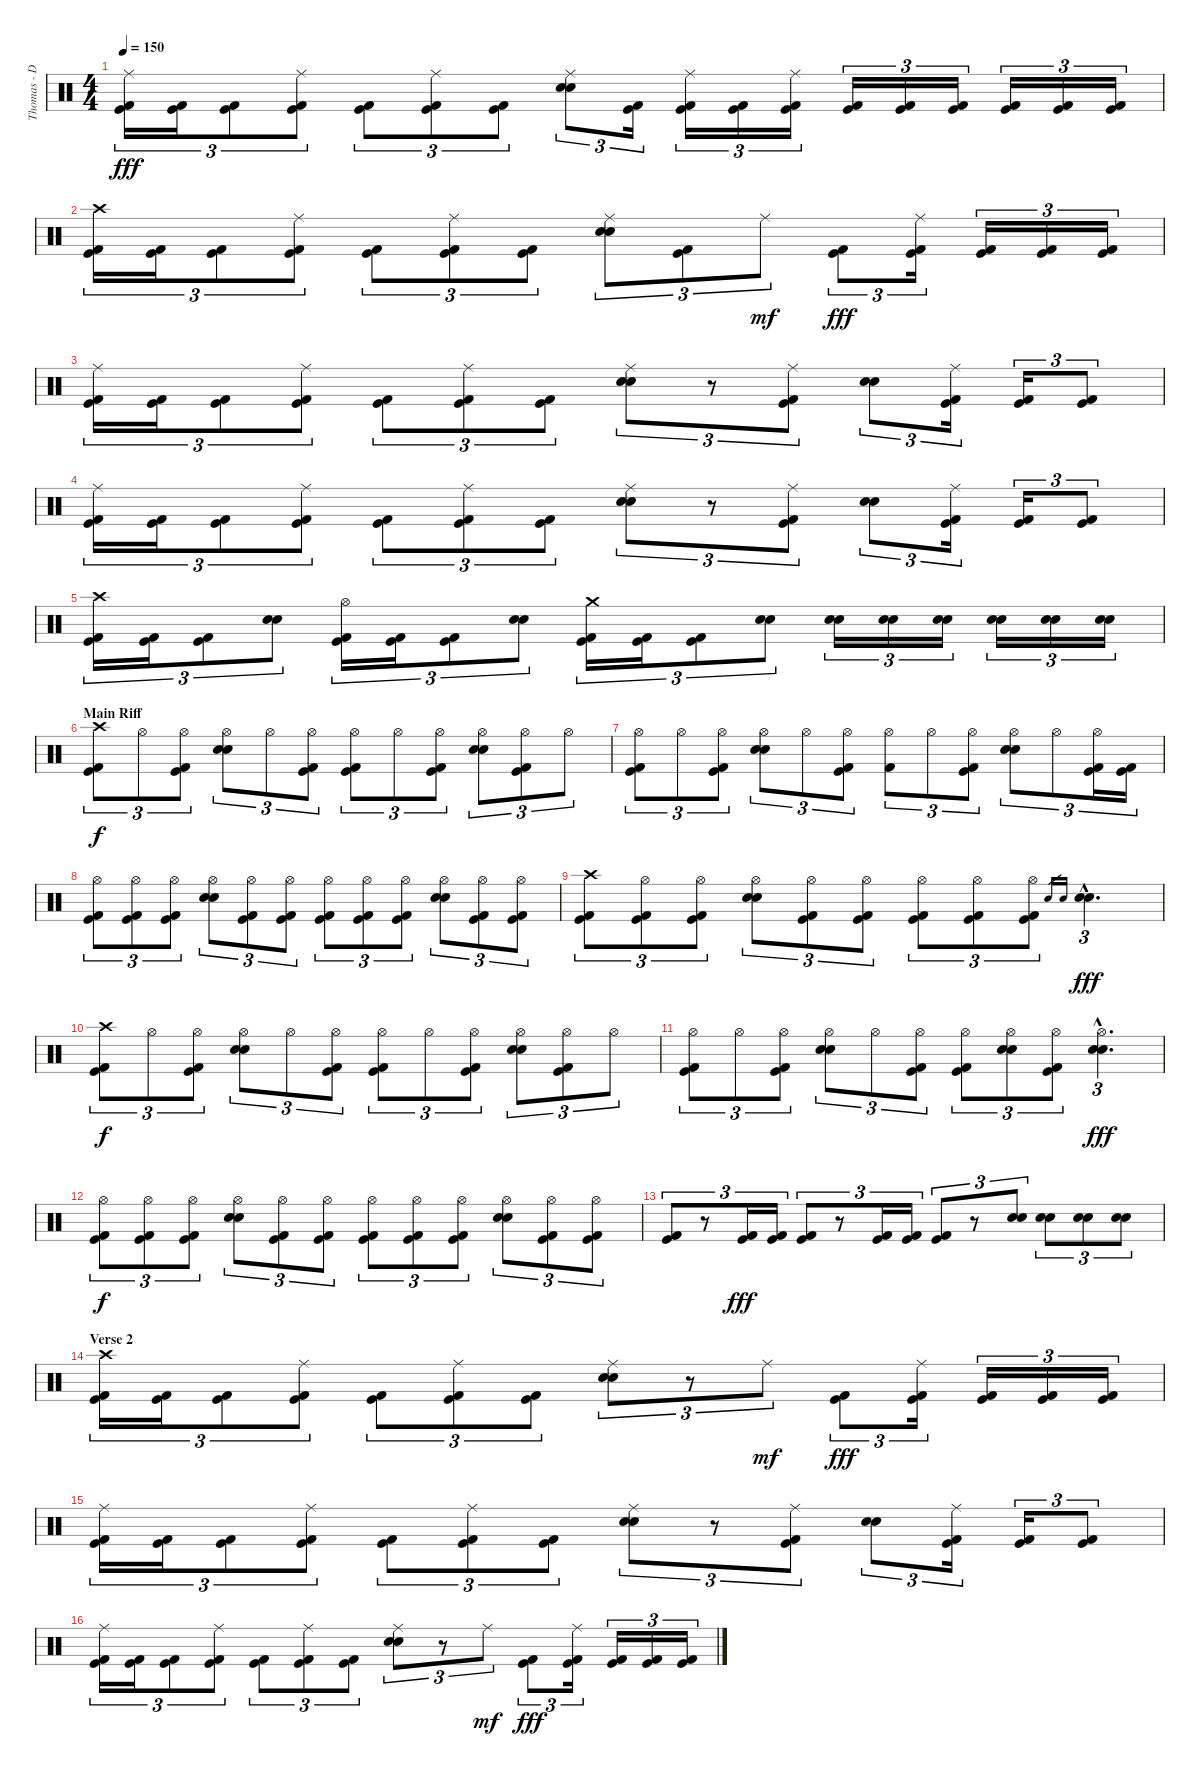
\track ("Thomas - Drums" "Thomas - D") {instrument percussion}
\staff {score}
\articulation defaults
\ts (4 4)
\tempo 150
\clef neutral
\ks c
("Ride (middle)" "Kick (hit)" "Kick (hit) 2").16{tu (3 2) dy fff} ("Kick (hit)" "Kick (hit) 2").16{tu (3 2)} ("Kick (hit)" "Kick (hit) 2").8{tu (3 2)} ("Ride (middle)" "Kick (hit)" "Kick (hit) 2").8{tu (3 2)} ("Kick (hit)" "Kick (hit) 2").8{tu (3 2)} ("Ride (middle)" "Kick (hit)" "Kick (hit) 2").8{tu (3 2)} ("Kick (hit)" "Kick (hit) 2").8{tu (3 2)} ("Ride (middle)" "Electric Snare (hit)" "Electric Snare (hit)").8{tu (3 2)} ("Kick (hit)" "Kick (hit) 2").16{tu (3 2)} ("Ride (middle)" "Kick (hit)" "Kick (hit) 2").16{tu (3 2)} ("Kick (hit)" "Kick (hit) 2").16{tu (3 2)} ("Ride (middle)" "Kick (hit)" "Kick (hit) 2").16{tu (3 2)} ("Kick (hit)" "Kick (hit) 2").16{tu (3 2)} ("Kick (hit)" "Kick (hit) 2").16{tu (3 2)} ("Kick (hit)" "Kick (hit) 2").16{tu (3 2)} ("Kick (hit)" "Kick (hit) 2").16{tu (3 2)} ("Kick (hit)" "Kick (hit) 2").16{tu (3 2)} ("Kick (hit)" "Kick (hit) 2").16{tu (3 2)} |
("Crash high (hit)" "Kick (hit)" "Kick (hit) 2").16{tu (3 2)} ("Kick (hit)" "Kick (hit) 2").16{tu (3 2)} ("Kick (hit)" "Kick (hit) 2").8{tu (3 2)} ("Ride (middle)" "Kick (hit)" "Kick (hit) 2").8{tu (3 2)} ("Kick (hit)" "Kick (hit) 2").8{tu (3 2)} ("Ride (middle)" "Kick (hit)" "Kick (hit) 2").8{tu (3 2)} ("Kick (hit)" "Kick (hit) 2").8{tu (3 2)} ("Ride (middle)" "Electric Snare (hit)" "Electric Snare (hit)").8{tu (3 2)} ("Kick (hit)" "Kick (hit) 2").8{tu (3 2)} "Ride (middle)".8{tu (3 2) dy mf} ("Kick (hit)" "Kick (hit) 2").8{tu (3 2) dy fff} ("Ride (middle)" "Kick (hit)" "Kick (hit) 2").16{tu (3 2)} ("Kick (hit)" "Kick (hit) 2").16{tu (3 2)} ("Kick (hit)" "Kick (hit) 2").16{tu (3 2)} ("Kick (hit)" "Kick (hit) 2").16{tu (3 2)} |
("Ride (middle)" "Kick (hit)" "Kick (hit) 2").16{tu (3 2)} ("Kick (hit)" "Kick (hit) 2").16{tu (3 2)} ("Kick (hit)" "Kick (hit) 2").8{tu (3 2)} ("Ride (middle)" "Kick (hit)" "Kick (hit) 2").8{tu (3 2)} ("Kick (hit)" "Kick (hit) 2").8{tu (3 2)} ("Ride (middle)" "Kick (hit)" "Kick (hit) 2").8{tu (3 2)} ("Kick (hit)" "Kick (hit) 2").8{tu (3 2)} ("Ride (middle)" "Electric Snare (hit)" "Electric Snare (hit)").8{tu (3 2)} r.8{tu (3 2)} ("Ride (middle)" "Kick (hit)" "Kick (hit) 2").8{tu (3 2)} ("Electric Snare (hit)" "Electric Snare (hit)").8{tu (3 2)} ("Ride (middle)" "Kick (hit)" "Kick (hit) 2").16{tu (3 2)} ("Kick (hit)" "Kick (hit) 2").16{tu (3 2)} ("Kick (hit)" "Kick (hit) 2").8{tu (3 2)} |
("Ride (middle)" "Kick (hit)" "Kick (hit) 2").16{tu (3 2)} ("Kick (hit)" "Kick (hit) 2").16{tu (3 2)} ("Kick (hit)" "Kick (hit) 2").8{tu (3 2)} ("Ride (middle)" "Kick (hit)" "Kick (hit) 2").8{tu (3 2)} ("Kick (hit)" "Kick (hit) 2").8{tu (3 2)} ("Ride (middle)" "Kick (hit)" "Kick (hit) 2").8{tu (3 2)} ("Kick (hit)" "Kick (hit) 2").8{tu (3 2)} ("Ride (middle)" "Electric Snare (hit)" "Electric Snare (hit)").8{tu (3 2)} r.8{tu (3 2)} ("Ride (middle)" "Kick (hit)" "Kick (hit) 2").8{tu (3 2)} ("Electric Snare (hit)" "Electric Snare (hit)").8{tu (3 2)} ("Ride (middle)" "Kick (hit)" "Kick (hit) 2").16{tu (3 2)} ("Kick (hit)" "Kick (hit) 2").16{tu (3 2)} ("Kick (hit)" "Kick (hit) 2").8{tu (3 2)} |
("Crash high (hit)" "Kick (hit)" "Kick (hit) 2").16{tu (3 2)} ("Kick (hit)" "Kick (hit) 2").16{tu (3 2)} ("Kick (hit)" "Kick (hit) 2").8{tu (3 2)} ("Electric Snare (hit)" "Electric Snare (hit)").8{tu (3 2)} ("Hi-Hat (open)" "Kick (hit)" "Kick (hit) 2").16{tu (3 2)} ("Kick (hit)" "Kick (hit) 2").16{tu (3 2)} ("Kick (hit)" "Kick (hit) 2").8{tu (3 2)} ("Electric Snare (hit)" "Electric Snare (hit)").8{tu (3 2)} ("Crash medium (hit)" "Kick (hit)" "Kick (hit) 2").16{tu (3 2)} ("Kick (hit)" "Kick (hit) 2").16{tu (3 2)} ("Kick (hit)" "Kick (hit) 2").8{tu (3 2)} ("Electric Snare (hit)" "Electric Snare (hit)").8{tu (3 2)} ("Electric Snare (hit)" "Electric Snare (hit)").16{tu (3 2)} ("Electric Snare (hit)" "Electric Snare (hit)").16{tu (3 2)} ("Electric Snare (hit)" "Electric Snare (hit)").16{tu (3 2)} ("Electric Snare (hit)" "Electric Snare (hit)").16{tu (3 2)} ("Electric Snare (hit)" "Electric Snare (hit)").16{tu (3 2)} ("Electric Snare (hit)" "Electric Snare (hit)").16{tu (3 2)} |
\section ("" "Main Riff")
("Crash high (hit)" "Kick (hit)" "Kick (hit) 2").8{tu (3 2) dy f} "Hi-Hat (open)".8{tu (3 2)} ("Hi-Hat (open)" "Kick (hit)" "Kick (hit) 2").8{tu (3 2)} ("Hi-Hat (open)" "Electric Snare (hit)" "Electric Snare (hit)").8{tu (3 2)} "Hi-Hat (open)".8{tu (3 2)} ("Hi-Hat (open)" "Kick (hit)" "Kick (hit) 2").8{tu (3 2)} ("Hi-Hat (open)" "Kick (hit)" "Kick (hit) 2").8{tu (3 2)} "Hi-Hat (open)".8{tu (3 2)} ("Hi-Hat (open)" "Kick (hit)" "Kick (hit) 2").8{tu (3 2)} ("Hi-Hat (open)" "Electric Snare (hit)" "Electric Snare (hit)").8{tu (3 2)} ("Hi-Hat (open)" "Kick (hit)" "Kick (hit) 2").8{tu (3 2)} "Hi-Hat (open)".8{tu (3 2)} |
("Hi-Hat (open)" "Kick (hit)" "Kick (hit) 2").8{tu (3 2)} "Hi-Hat (open)".8{tu (3 2)} ("Hi-Hat (open)" "Kick (hit)" "Kick (hit) 2").8{tu (3 2)} ("Hi-Hat (open)" "Electric Snare (hit)" "Electric Snare (hit)").8{tu (3 2)} "Hi-Hat (open)".8{tu (3 2)} ("Hi-Hat (open)" "Kick (hit)" "Kick (hit) 2").8{tu (3 2)} ("Hi-Hat (open)" "Kick (hit) 2").8{tu (3 2)} "Hi-Hat (open)".8{tu (3 2)} ("Hi-Hat (open)" "Kick (hit)" "Kick (hit) 2").8{tu (3 2)} ("Hi-Hat (open)" "Electric Snare (hit)" "Electric Snare (hit)").8{tu (3 2)} "Hi-Hat (open)".8{tu (3 2)} ("Hi-Hat (open)" "Kick (hit)" "Kick (hit) 2").16{tu (3 2)} ("Kick (hit)" "Kick (hit) 2").16{tu (3 2)} |
("Hi-Hat (open)" "Kick (hit)" "Kick (hit) 2").8{tu (3 2)} ("Hi-Hat (open)" "Kick (hit)" "Kick (hit) 2").8{tu (3 2)} ("Hi-Hat (open)" "Kick (hit)" "Kick (hit) 2").8{tu (3 2)} ("Hi-Hat (open)" "Electric Snare (hit)" "Electric Snare (hit)").8{tu (3 2)} ("Hi-Hat (open)" "Kick (hit)" "Kick (hit) 2").8{tu (3 2)} ("Hi-Hat (open)" "Kick (hit)" "Kick (hit) 2").8{tu (3 2)} ("Hi-Hat (open)" "Kick (hit)" "Kick (hit) 2").8{tu (3 2)} ("Hi-Hat (open)" "Kick (hit)" "Kick (hit) 2").8{tu (3 2)} ("Hi-Hat (open)" "Kick (hit)" "Kick (hit) 2").8{tu (3 2)} ("Hi-Hat (open)" "Electric Snare (hit)" "Electric Snare (hit)").8{tu (3 2)} ("Hi-Hat (open)" "Kick (hit)" "Kick (hit) 2").8{tu (3 2)} ("Hi-Hat (open)" "Kick (hit)" "Kick (hit) 2").8{tu (3 2)} |
("Crash high (hit)" "Kick (hit)" "Kick (hit) 2").8{tu (3 2)} ("Hi-Hat (open)" "Kick (hit)" "Kick (hit) 2").8{tu (3 2)} ("Hi-Hat (open)" "Kick (hit)" "Kick (hit) 2").8{tu (3 2)} ("Hi-Hat (open)" "Electric Snare (hit)" "Electric Snare (hit)").8{tu (3 2)} ("Hi-Hat (open)" "Kick (hit)" "Kick (hit) 2").8{tu (3 2)} ("Hi-Hat (open)" "Kick (hit)" "Kick (hit) 2").8{tu (3 2)} ("Hi-Hat (open)" "Kick (hit)" "Kick (hit) 2").8{tu (3 2)} ("Hi-Hat (open)" "Kick (hit)" "Kick (hit) 2").8{tu (3 2)} ("Hi-Hat (open)" "Kick (hit)" "Kick (hit) 2").8{tu (3 2)} "Electric Snare (hit)".16{gr} "Electric Snare (hit)".16{gr} ("Electric Snare (hit)"{hac} "Electric Snare (hit)"{hac}).4{d tu (3 2) dy fff} |
("Crash high (hit)" "Kick (hit)" "Kick (hit) 2").8{tu (3 2) dy f} "Hi-Hat (open)".8{tu (3 2)} ("Hi-Hat (open)" "Kick (hit)" "Kick (hit) 2").8{tu (3 2)} ("Hi-Hat (open)" "Electric Snare (hit)" "Electric Snare (hit)").8{tu (3 2)} "Hi-Hat (open)".8{tu (3 2)} ("Hi-Hat (open)" "Kick (hit)" "Kick (hit) 2").8{tu (3 2)} ("Hi-Hat (open)" "Kick (hit)" "Kick (hit) 2").8{tu (3 2)} "Hi-Hat (open)".8{tu (3 2)} ("Hi-Hat (open)" "Kick (hit)" "Kick (hit) 2").8{tu (3 2)} ("Hi-Hat (open)" "Electric Snare (hit)" "Electric Snare (hit)").8{tu (3 2)} ("Hi-Hat (open)" "Kick (hit)" "Kick (hit) 2").8{tu (3 2)} "Hi-Hat (open)".8{tu (3 2)} |
("Hi-Hat (open)" "Kick (hit)" "Kick (hit) 2").8{tu (3 2)} "Hi-Hat (open)".8{tu (3 2)} ("Hi-Hat (open)" "Kick (hit)" "Kick (hit) 2").8{tu (3 2)} ("Hi-Hat (open)" "Electric Snare (hit)" "Electric Snare (hit)").8{tu (3 2)} "Hi-Hat (open)".8{tu (3 2)} ("Hi-Hat (open)" "Kick (hit)" "Kick (hit) 2").8{tu (3 2)} ("Hi-Hat (open)" "Kick (hit)" "Kick (hit) 2").8{tu (3 2)} ("Hi-Hat (open)" "Electric Snare (hit)" "Electric Snare (hit)").8{tu (3 2)} ("Hi-Hat (open)" "Kick (hit)" "Kick (hit) 2").8{tu (3 2)} ("Hi-Hat (open)"{hac} "Electric Snare (hit)"{hac} "Electric Snare (hit)"{hac}).4{d tu (3 2) dy fff} |
("Hi-Hat (open)" "Kick (hit)" "Kick (hit) 2").8{tu (3 2) dy f} ("Hi-Hat (open)" "Kick (hit)" "Kick (hit) 2").8{tu (3 2)} ("Hi-Hat (open)" "Kick (hit)" "Kick (hit) 2").8{tu (3 2)} ("Hi-Hat (open)" "Electric Snare (hit)" "Electric Snare (hit)").8{tu (3 2)} ("Hi-Hat (open)" "Kick (hit)" "Kick (hit) 2").8{tu (3 2)} ("Hi-Hat (open)" "Kick (hit)" "Kick (hit) 2").8{tu (3 2)} ("Hi-Hat (open)" "Kick (hit)" "Kick (hit) 2").8{tu (3 2)} ("Hi-Hat (open)" "Kick (hit)" "Kick (hit) 2").8{tu (3 2)} ("Hi-Hat (open)" "Kick (hit)" "Kick (hit) 2").8{tu (3 2)} ("Hi-Hat (open)" "Electric Snare (hit)" "Electric Snare (hit)").8{tu (3 2)} ("Hi-Hat (open)" "Kick (hit)" "Kick (hit) 2").8{tu (3 2)} ("Hi-Hat (open)" "Kick (hit)" "Kick (hit) 2").8{tu (3 2)} |
("Kick (hit) 2" "Kick (hit)").8{tu (3 2)} r.8{tu (3 2)} ("Kick (hit) 2" "Kick (hit)").16{tu (3 2) dy fff} ("Kick (hit) 2" "Kick (hit)").16{tu (3 2)} ("Kick (hit) 2" "Kick (hit)").8{tu (3 2)} r.8{tu (3 2)} ("Kick (hit)" "Kick (hit) 2").16{tu (3 2)} ("Kick (hit)" "Kick (hit) 2").16{tu (3 2)} ("Kick (hit) 2" "Kick (hit)").8{tu (3 2)} r.8{tu (3 2)} ("Electric Snare (hit)" "Electric Snare (hit)").8{tu (3 2)} ("Electric Snare (hit)" "Electric Snare (hit)").8{tu (3 2)} ("Electric Snare (hit)" "Electric Snare (hit)").8{tu (3 2)} ("Electric Snare (hit)" "Electric Snare (hit)").8{tu (3 2)} |
\section ("" "Verse 2")
("Crash high (hit)" "Kick (hit)" "Kick (hit) 2").16{tu (3 2)} ("Kick (hit)" "Kick (hit) 2").16{tu (3 2)} ("Kick (hit)" "Kick (hit) 2").8{tu (3 2)} ("Ride (middle)" "Kick (hit)" "Kick (hit) 2").8{tu (3 2)} ("Kick (hit)" "Kick (hit) 2").8{tu (3 2)} ("Ride (middle)" "Kick (hit)" "Kick (hit) 2").8{tu (3 2)} ("Kick (hit)" "Kick (hit) 2").8{tu (3 2)} ("Ride (middle)" "Electric Snare (hit)" "Electric Snare (hit)").8{tu (3 2)} r.8{tu (3 2)} "Ride (middle)".8{tu (3 2) dy mf} ("Kick (hit)" "Kick (hit) 2").8{tu (3 2) dy fff} ("Ride (middle)" "Kick (hit)" "Kick (hit) 2").16{tu (3 2)} ("Kick (hit)" "Kick (hit) 2").16{tu (3 2)} ("Kick (hit)" "Kick (hit) 2").16{tu (3 2)} ("Kick (hit)" "Kick (hit) 2").16{tu (3 2)} |
("Ride (middle)" "Kick (hit)" "Kick (hit) 2").16{tu (3 2)} ("Kick (hit)" "Kick (hit) 2").16{tu (3 2)} ("Kick (hit)" "Kick (hit) 2").8{tu (3 2)} ("Ride (middle)" "Kick (hit)" "Kick (hit) 2").8{tu (3 2)} ("Kick (hit)" "Kick (hit) 2").8{tu (3 2)} ("Ride (middle)" "Kick (hit)" "Kick (hit) 2").8{tu (3 2)} ("Kick (hit)" "Kick (hit) 2").8{tu (3 2)} ("Ride (middle)" "Electric Snare (hit)" "Electric Snare (hit)").8{tu (3 2)} r.8{tu (3 2)} ("Ride (middle)" "Kick (hit)" "Kick (hit) 2").8{tu (3 2)} ("Electric Snare (hit)" "Electric Snare (hit)").8{tu (3 2)} ("Ride (middle)" "Kick (hit)" "Kick (hit) 2").16{tu (3 2)} ("Kick (hit)" "Kick (hit) 2").16{tu (3 2)} ("Kick (hit)" "Kick (hit) 2").8{tu (3 2)} |
("Ride (middle)" "Kick (hit)" "Kick (hit) 2").16{tu (3 2)} ("Kick (hit)" "Kick (hit) 2").16{tu (3 2)} ("Kick (hit)" "Kick (hit) 2").8{tu (3 2)} ("Ride (middle)" "Kick (hit)" "Kick (hit) 2").8{tu (3 2)} ("Kick (hit)" "Kick (hit) 2").8{tu (3 2)} ("Ride (middle)" "Kick (hit)" "Kick (hit) 2").8{tu (3 2)} ("Kick (hit)" "Kick (hit) 2").8{tu (3 2)} ("Ride (middle)" "Electric Snare (hit)" "Electric Snare (hit)").8{tu (3 2)} r.8{tu (3 2)} "Ride (middle)".8{tu (3 2) dy mf} ("Kick (hit)" "Kick (hit) 2").8{tu (3 2) dy fff} ("Ride (middle)" "Kick (hit)" "Kick (hit) 2").16{tu (3 2)} ("Kick (hit)" "Kick (hit) 2").16{tu (3 2)} ("Kick (hit)" "Kick (hit) 2").16{tu (3 2)} ("Kick (hit)" "Kick (hit) 2").16{tu (3 2)}
